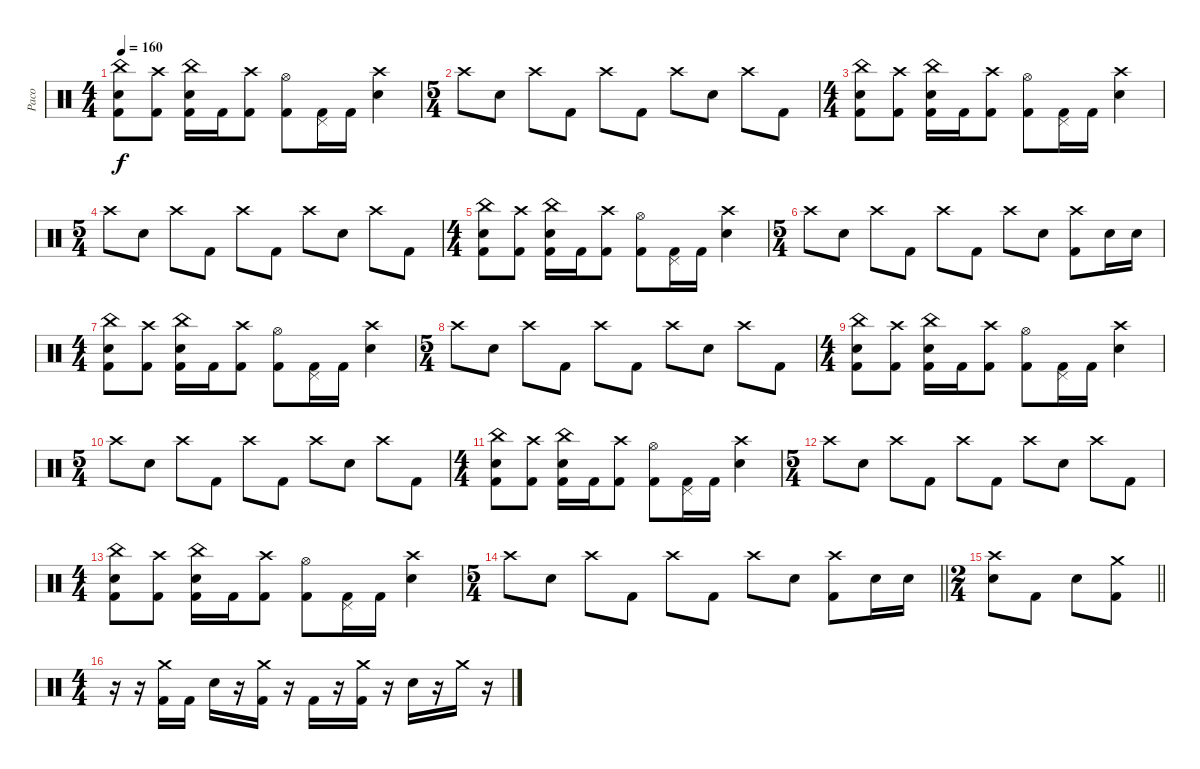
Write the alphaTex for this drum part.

\track ("Paco" "Paco") {instrument percussion}
\staff {score}
\articulation defaults
\ts (4 4)
\tempo 160
\clef neutral
\ks c
("China (hit)" "Electric Snare (hit)" "Kick (hit) 2").8{dy f} ("Crash high (hit)" "Kick (hit) 2").8 ("China (hit)" "Electric Snare (hit)" "Kick (hit) 2").16 "Kick (hit) 2".16 ("Crash high (hit)" "Kick (hit) 2").8 ("Hi-Hat (open)" "Kick (hit) 2").8 ("Pedal Hi-Hat (hit)" "Kick (hit) 2").16 "Kick (hit) 2".16 ("Crash high (hit)" "Electric Snare (hit)").4 |
\ts (5 4)
"Crash high (hit)".8 "Electric Snare (hit)".8 "Crash high (hit)".8 "Kick (hit) 2".8 "Crash high (hit)".8 "Kick (hit) 2".8 "Crash high (hit)".8 "Electric Snare (hit)".8 "Crash high (hit)".8 "Kick (hit) 2".8 |
\ts (4 4)
("China (hit)" "Electric Snare (hit)" "Kick (hit) 2").8 ("Crash high (hit)" "Kick (hit) 2").8 ("China (hit)" "Electric Snare (hit)" "Kick (hit) 2").16 "Kick (hit) 2".16 ("Crash high (hit)" "Kick (hit) 2").8 ("Hi-Hat (open)" "Kick (hit) 2").8 ("Pedal Hi-Hat (hit)" "Kick (hit) 2").16 "Kick (hit) 2".16 ("Crash high (hit)" "Electric Snare (hit)").4 |
\ts (5 4)
"Crash high (hit)".8 "Electric Snare (hit)".8 "Crash high (hit)".8 "Kick (hit) 2".8 "Crash high (hit)".8 "Kick (hit) 2".8 "Crash high (hit)".8 "Electric Snare (hit)".8 "Crash high (hit)".8 "Kick (hit) 2".8 |
\ts (4 4)
("China (hit)" "Electric Snare (hit)" "Kick (hit) 2").8 ("Crash high (hit)" "Kick (hit) 2").8 ("China (hit)" "Electric Snare (hit)" "Kick (hit) 2").16 "Kick (hit) 2".16 ("Crash high (hit)" "Kick (hit) 2").8 ("Hi-Hat (open)" "Kick (hit) 2").8 ("Pedal Hi-Hat (hit)" "Kick (hit) 2").16 "Kick (hit) 2".16 ("Crash high (hit)" "Electric Snare (hit)").4 |
\ts (5 4)
"Crash high (hit)".8 "Electric Snare (hit)".8 "Crash high (hit)".8 "Kick (hit) 2".8 "Crash high (hit)".8 "Kick (hit) 2".8 "Crash high (hit)".8 "Electric Snare (hit)".8 ("Crash high (hit)" "Kick (hit) 2").8 "Electric Snare (hit)".16 "Electric Snare (hit)".16 |
\ts (4 4)
("China (hit)" "Electric Snare (hit)" "Kick (hit) 2").8 ("Crash high (hit)" "Kick (hit) 2").8 ("China (hit)" "Electric Snare (hit)" "Kick (hit) 2").16 "Kick (hit) 2".16 ("Crash high (hit)" "Kick (hit) 2").8 ("Hi-Hat (open)" "Kick (hit) 2").8 ("Pedal Hi-Hat (hit)" "Kick (hit) 2").16 "Kick (hit) 2".16 ("Crash high (hit)" "Electric Snare (hit)").4 |
\ts (5 4)
"Crash high (hit)".8 "Electric Snare (hit)".8 "Crash high (hit)".8 "Kick (hit) 2".8 "Crash high (hit)".8 "Kick (hit) 2".8 "Crash high (hit)".8 "Electric Snare (hit)".8 "Crash high (hit)".8 "Kick (hit) 2".8 |
\ts (4 4)
("China (hit)" "Electric Snare (hit)" "Kick (hit) 2").8 ("Crash high (hit)" "Kick (hit) 2").8 ("China (hit)" "Electric Snare (hit)" "Kick (hit) 2").16 "Kick (hit) 2".16 ("Crash high (hit)" "Kick (hit) 2").8 ("Hi-Hat (open)" "Kick (hit) 2").8 ("Pedal Hi-Hat (hit)" "Kick (hit) 2").16 "Kick (hit) 2".16 ("Crash high (hit)" "Electric Snare (hit)").4 |
\ts (5 4)
"Crash high (hit)".8 "Electric Snare (hit)".8 "Crash high (hit)".8 "Kick (hit) 2".8 "Crash high (hit)".8 "Kick (hit) 2".8 "Crash high (hit)".8 "Electric Snare (hit)".8 "Crash high (hit)".8 "Kick (hit) 2".8 |
\ts (4 4)
("China (hit)" "Electric Snare (hit)" "Kick (hit) 2").8 ("Crash high (hit)" "Kick (hit) 2").8 ("China (hit)" "Electric Snare (hit)" "Kick (hit) 2").16 "Kick (hit) 2".16 ("Crash high (hit)" "Kick (hit) 2").8 ("Hi-Hat (open)" "Kick (hit) 2").8 ("Pedal Hi-Hat (hit)" "Kick (hit) 2").16 "Kick (hit) 2".16 ("Crash high (hit)" "Electric Snare (hit)").4 |
\ts (5 4)
"Crash high (hit)".8 "Electric Snare (hit)".8 "Crash high (hit)".8 "Kick (hit) 2".8 "Crash high (hit)".8 "Kick (hit) 2".8 "Crash high (hit)".8 "Electric Snare (hit)".8 "Crash high (hit)".8 "Kick (hit) 2".8 |
\ts (4 4)
("China (hit)" "Electric Snare (hit)" "Kick (hit) 2").8 ("Crash high (hit)" "Kick (hit) 2").8 ("China (hit)" "Electric Snare (hit)" "Kick (hit) 2").16 "Kick (hit) 2".16 ("Crash high (hit)" "Kick (hit) 2").8 ("Hi-Hat (open)" "Kick (hit) 2").8 ("Pedal Hi-Hat (hit)" "Kick (hit) 2").16 "Kick (hit) 2".16 ("Crash high (hit)" "Electric Snare (hit)").4 |
\ts (5 4)
\barLineRight lightlight "Crash high (hit)".8 "Electric Snare (hit)".8 "Crash high (hit)".8 "Kick (hit) 2".8 "Crash high (hit)".8 "Kick (hit) 2".8 "Crash high (hit)".8 "Electric Snare (hit)".8
("Crash high (hit)" "Kick (hit) 2").8 "Electric Snare (hit)".16 "Electric Snare (hit)".16 |
\ts (2 4)
\barLineRight lightlight
("Crash high (hit)" "Electric Snare (hit)").8 "Kick (hit) 2".8 "Electric Snare (hit)".8 ("Crash medium (hit)" "Kick (hit) 2").8 |
\ts (4 4)
r.16 r.16 ("Crash medium (hit)" "Kick (hit) 2").16 "Kick (hit) 2".16 "Electric Snare (hit)".16 r.16 ("Crash medium (hit)" "Kick (hit) 2").16 r.16 "Kick (hit) 2".16 r.16 ("Crash medium (hit)" "Kick (hit) 2").16 r.16 "Electric Snare (hit)".16 r.16 "Crash medium (hit)".16 r.16
